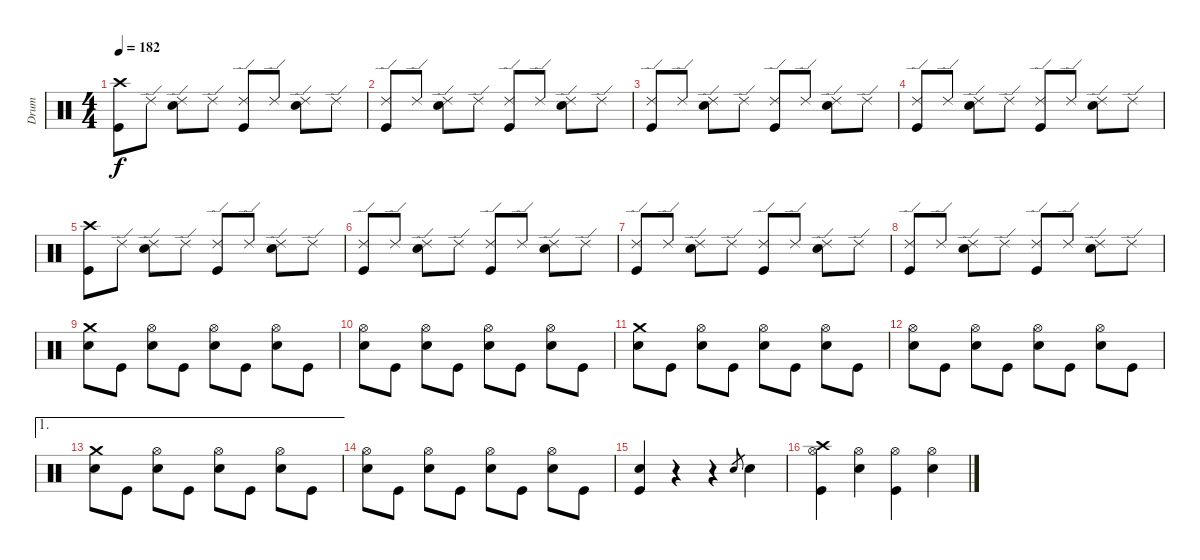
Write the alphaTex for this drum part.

\track ("Drum" "Drum") {instrument percussion}
\staff {score}
\articulation defaults
\ts (4 4)
\tempo 182
\clef neutral
\ks c
("Crash high (hit)" "Kick (hit)").8{dy f} "Ride (edge) 2".8 ("Ride (edge) 2" "Snare (hit) 2").8 "Ride (edge) 2".8 ("Ride (edge) 2" "Kick (hit)").8 "Ride (edge) 2".8 ("Ride (edge) 2" "Snare (hit) 2").8 "Ride (edge) 2".8 |
("Ride (edge) 2" "Kick (hit)").8 "Ride (edge) 2".8 ("Ride (edge) 2" "Snare (hit) 2").8 "Ride (edge) 2".8 ("Ride (edge) 2" "Kick (hit)").8 "Ride (edge) 2".8 ("Ride (edge) 2" "Snare (hit) 2").8 "Ride (edge) 2".8 |
("Ride (edge) 2" "Kick (hit)").8 "Ride (edge) 2".8 ("Ride (edge) 2" "Snare (hit) 2").8 "Ride (edge) 2".8 ("Ride (edge) 2" "Kick (hit)").8 "Ride (edge) 2".8 ("Ride (edge) 2" "Snare (hit) 2").8 "Ride (edge) 2".8 |
("Ride (edge) 2" "Kick (hit)").8 "Ride (edge) 2".8 ("Ride (edge) 2" "Snare (hit) 2").8 "Ride (edge) 2".8 ("Ride (edge) 2" "Kick (hit)").8 "Ride (edge) 2".8 ("Ride (edge) 2" "Snare (hit) 2").8 "Ride (edge) 2".8 |
("Crash high (hit)" "Kick (hit)").8 "Ride (edge) 2".8 ("Ride (edge) 2" "Snare (hit) 2").8 "Ride (edge) 2".8 ("Ride (edge) 2" "Kick (hit)").8 "Ride (edge) 2".8 ("Ride (edge) 2" "Snare (hit) 2").8 "Ride (edge) 2".8 |
("Ride (edge) 2" "Kick (hit)").8 "Ride (edge) 2".8 ("Ride (edge) 2" "Snare (hit) 2").8 "Ride (edge) 2".8 ("Ride (edge) 2" "Kick (hit)").8 "Ride (edge) 2".8 ("Ride (edge) 2" "Snare (hit) 2").8 "Ride (edge) 2".8 |
("Ride (edge) 2" "Kick (hit)").8 "Ride (edge) 2".8 ("Ride (edge) 2" "Snare (hit) 2").8 "Ride (edge) 2".8 ("Ride (edge) 2" "Kick (hit)").8 "Ride (edge) 2".8 ("Ride (edge) 2" "Snare (hit) 2").8 "Ride (edge) 2".8 |
("Ride (edge) 2" "Kick (hit)").8 "Ride (edge) 2".8 ("Ride (edge) 2" "Snare (hit) 2").8 "Ride (edge) 2".8 ("Ride (edge) 2" "Kick (hit)").8 "Ride (edge) 2".8 ("Ride (edge) 2" "Snare (hit) 2").8 "Ride (edge) 2".8 |
("Crash medium (hit)" "Snare (hit) 2").8 "Kick (hit)".8 ("Snare (hit) 2" "Hi-Hat (open)").8 "Kick (hit)".8 ("Snare (hit) 2" "Hi-Hat (open)").8 "Kick (hit)".8 ("Snare (hit) 2" "Hi-Hat (open)").8 "Kick (hit)".8 |
("Snare (hit) 2" "Hi-Hat (open)").8 "Kick (hit)".8 ("Snare (hit) 2" "Hi-Hat (open)").8 "Kick (hit)".8 ("Snare (hit) 2" "Hi-Hat (open)").8 "Kick (hit)".8 ("Snare (hit) 2" "Hi-Hat (open)").8 "Kick (hit)".8 |
("Crash medium (hit)" "Snare (hit) 2").8 "Kick (hit)".8 ("Snare (hit) 2" "Hi-Hat (open)").8 "Kick (hit)".8 ("Snare (hit) 2" "Hi-Hat (open)").8 "Kick (hit)".8 ("Snare (hit) 2" "Hi-Hat (open)").8 "Kick (hit)".8 |
("Snare (hit) 2" "Hi-Hat (open)").8 "Kick (hit)".8 ("Snare (hit) 2" "Hi-Hat (open)").8 "Kick (hit)".8 ("Snare (hit) 2" "Hi-Hat (open)").8 "Kick (hit)".8 ("Snare (hit) 2" "Hi-Hat (open)").8 "Kick (hit)".8 |
\ae 1
("Crash medium (hit)" "Snare (hit) 2").8 "Kick (hit)".8 ("Snare (hit) 2" "Hi-Hat (open)").8 "Kick (hit)".8 ("Snare (hit) 2" "Hi-Hat (open)").8 "Kick (hit)".8 ("Snare (hit) 2" "Hi-Hat (open)").8 "Kick (hit)".8 |
("Snare (hit) 2" "Hi-Hat (open)").8 "Kick (hit)".8 ("Snare (hit) 2" "Hi-Hat (open)").8 "Kick (hit)".8 ("Snare (hit) 2" "Hi-Hat (open)").8 "Kick (hit)".8 ("Snare (hit) 2" "Hi-Hat (open)").8 "Kick (hit)".8 |
("Snare (hit) 2" "Kick (hit)").4 r.4 r.4 "Snare (hit) 2".8{gr} "Snare (hit) 2".4 |
("Crash high (hit)" "Hi-Hat (open)" "Kick (hit)").4 ("Snare (hit) 2" "Hi-Hat (open)").4 ("Hi-Hat (open)" "Kick (hit)").4 ("Snare (hit) 2" "Hi-Hat (open)").4
